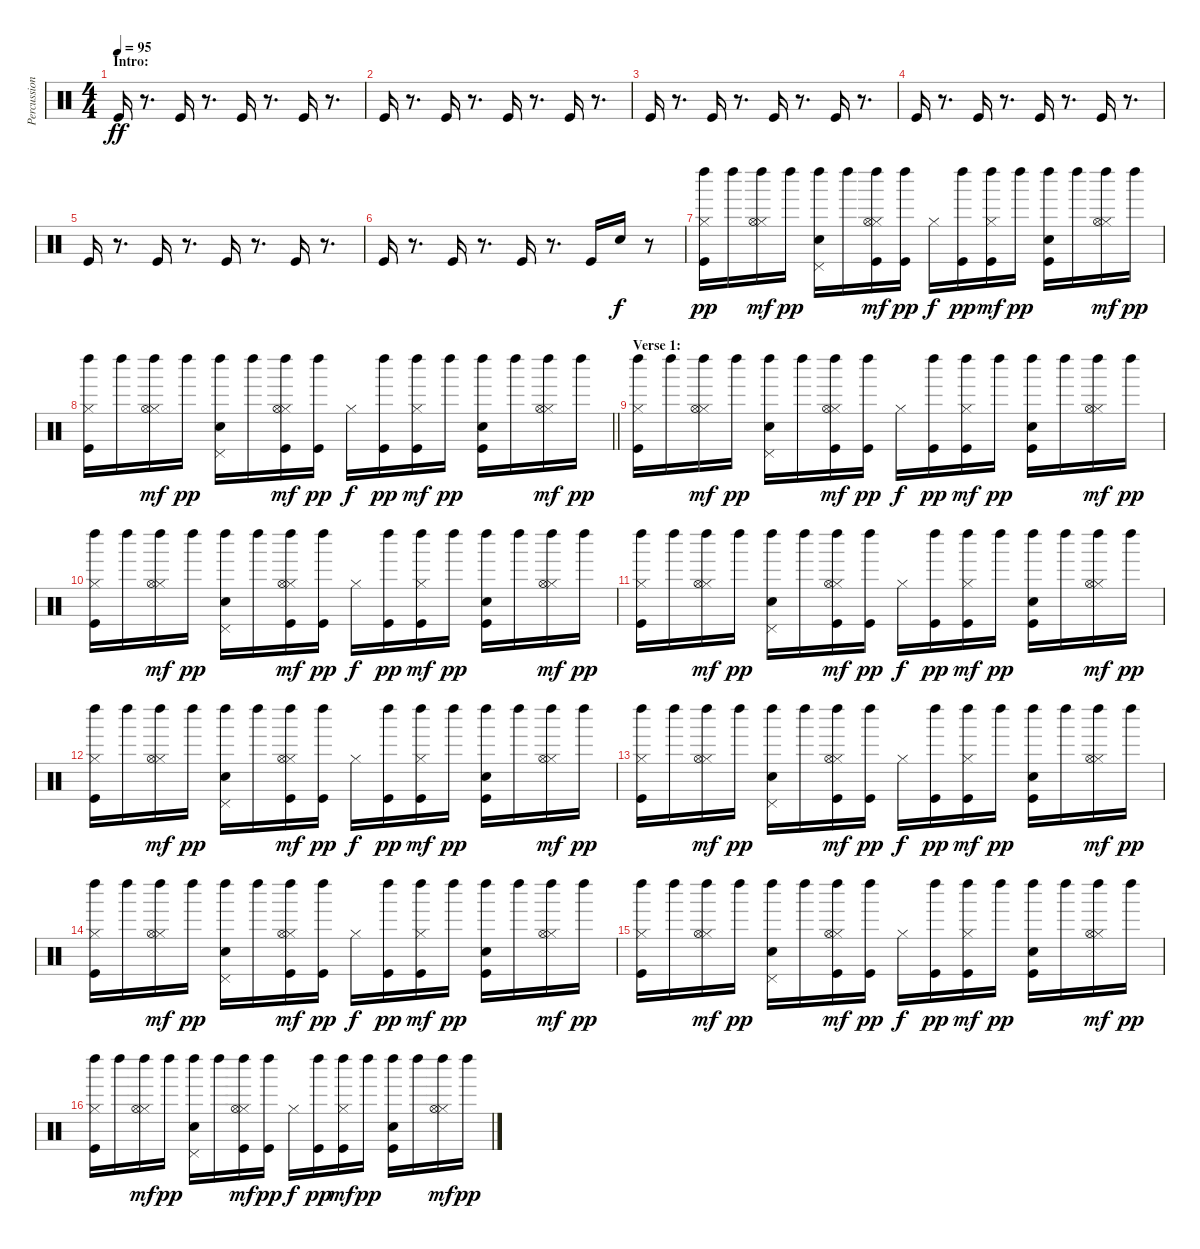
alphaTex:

\track ("Percussion" "Percussion") {instrument percussion}
\staff {score}
\articulation defaults
\ts (4 4)
\section ("" "Intro:")
\tempo 95
\clef neutral
\ks c "Kick (hit)".16{dy ff}
r.8{d} "Kick (hit)".16 r.8{d} "Kick (hit)".16 r.8{d} "Kick (hit)".16 r.8{d} |
"Kick (hit)".16 r.8{d} "Kick (hit)".16 r.8{d} "Kick (hit)".16 r.8{d} "Kick (hit)".16 r.8{d} |
"Kick (hit)".16 r.8{d} "Kick (hit)".16 r.8{d} "Kick (hit)".16 r.8{d} "Kick (hit)".16 r.8{d} |
"Kick (hit)".16 r.8{d} "Kick (hit)".16 r.8{d} "Kick (hit)".16 r.8{d} "Kick (hit)".16 r.8{d} |
"Kick (hit)".16 r.8{d} "Kick (hit)".16 r.8{d} "Kick (hit)".16 r.8{d} "Kick (hit)".16 r.8{d} |
"Kick (hit)".16 r.8{d} "Kick (hit)".16 r.8{d} "Kick (hit)".16 r.8{d} "Kick (hit)".16 "Snare (hit) 2".16{dy f} r.8 |
("Kick (hit)" "Hi-Hat (closed)" "Left Maraca (hit)").16{dy pp} "Left Maraca (hit)".16 ("Hi-Hat (closed)" "Hi-Hat (open)" "Left Maraca (hit)").16{dy mf} "Left Maraca (hit)".16{dy pp} ("Snare (hit) 2" "Pedal Hi-Hat (hit)" "Left Maraca (hit)").16 "Left Maraca (hit)".16 ("Kick (hit)" "Hi-Hat (closed)" "Hi-Hat (open)" "Left Maraca (hit)").16{dy mf} ("Left Maraca (hit)" "Kick (hit)").16{dy pp} "Hi-Hat (closed)".16{dy f} ("Left Maraca (hit)" "Kick (hit)").16{dy pp} ("Hi-Hat (closed)" "Kick (hit)" "Left Maraca (hit)").16{dy mf} "Left Maraca (hit)".16{dy pp} ("Snare (hit) 2" "Kick (hit)" "Left Maraca (hit)").16 "Left Maraca (hit)".16 ("Hi-Hat (closed)" "Hi-Hat (open)" "Left Maraca (hit)").16{dy mf} "Left Maraca (hit)".16{dy pp} |
\barLineRight lightlight
("Kick (hit)" "Hi-Hat (closed)" "Left Maraca (hit)").16 "Left Maraca (hit)".16 ("Hi-Hat (closed)" "Hi-Hat (open)" "Left Maraca (hit)").16{dy mf} "Left Maraca (hit)".16{dy pp} ("Snare (hit) 2" "Pedal Hi-Hat (hit)" "Left Maraca (hit)").16 "Left Maraca (hit)".16 ("Kick (hit)" "Hi-Hat (closed)" "Hi-Hat (open)" "Left Maraca (hit)").16{dy mf} ("Left Maraca (hit)" "Kick (hit)").16{dy pp} "Hi-Hat (closed)".16{dy f} ("Left Maraca (hit)" "Kick (hit)").16{dy pp} ("Hi-Hat (closed)" "Kick (hit)" "Left Maraca (hit)").16{dy mf} "Left Maraca (hit)".16{dy pp} ("Snare (hit) 2" "Kick (hit)" "Left Maraca (hit)").16 "Left Maraca (hit)".16 ("Hi-Hat (closed)" "Hi-Hat (open)" "Left Maraca (hit)").16{dy mf} "Left Maraca (hit)".16{dy pp} |
\section ("" "Verse 1:")
("Kick (hit)" "Hi-Hat (closed)" "Left Maraca (hit)").16 "Left Maraca (hit)".16 ("Hi-Hat (closed)" "Hi-Hat (open)" "Left Maraca (hit)").16{dy mf} "Left Maraca (hit)".16{dy pp} ("Snare (hit) 2" "Pedal Hi-Hat (hit)" "Left Maraca (hit)").16 "Left Maraca (hit)".16 ("Kick (hit)" "Hi-Hat (closed)" "Hi-Hat (open)" "Left Maraca (hit)").16{dy mf} ("Left Maraca (hit)" "Kick (hit)").16{dy pp} "Hi-Hat (closed)".16{dy f} ("Left Maraca (hit)" "Kick (hit)").16{dy pp} ("Hi-Hat (closed)" "Kick (hit)" "Left Maraca (hit)").16{dy mf} "Left Maraca (hit)".16{dy pp} ("Snare (hit) 2" "Kick (hit)" "Left Maraca (hit)").16 "Left Maraca (hit)".16 ("Hi-Hat (closed)" "Hi-Hat (open)" "Left Maraca (hit)").16{dy mf} "Left Maraca (hit)".16{dy pp} |
("Kick (hit)" "Hi-Hat (closed)" "Left Maraca (hit)").16 "Left Maraca (hit)".16 ("Hi-Hat (closed)" "Hi-Hat (open)" "Left Maraca (hit)").16{dy mf} "Left Maraca (hit)".16{dy pp} ("Snare (hit) 2" "Pedal Hi-Hat (hit)" "Left Maraca (hit)").16 "Left Maraca (hit)".16 ("Kick (hit)" "Hi-Hat (closed)" "Hi-Hat (open)" "Left Maraca (hit)").16{dy mf} ("Left Maraca (hit)" "Kick (hit)").16{dy pp} "Hi-Hat (closed)".16{dy f} ("Left Maraca (hit)" "Kick (hit)").16{dy pp} ("Hi-Hat (closed)" "Kick (hit)" "Left Maraca (hit)").16{dy mf} "Left Maraca (hit)".16{dy pp} ("Snare (hit) 2" "Kick (hit)" "Left Maraca (hit)").16 "Left Maraca (hit)".16 ("Hi-Hat (closed)" "Hi-Hat (open)" "Left Maraca (hit)").16{dy mf} "Left Maraca (hit)".16{dy pp} |
("Kick (hit)" "Hi-Hat (closed)" "Left Maraca (hit)").16 "Left Maraca (hit)".16 ("Hi-Hat (closed)" "Hi-Hat (open)" "Left Maraca (hit)").16{dy mf} "Left Maraca (hit)".16{dy pp} ("Snare (hit) 2" "Pedal Hi-Hat (hit)" "Left Maraca (hit)").16 "Left Maraca (hit)".16 ("Kick (hit)" "Hi-Hat (closed)" "Hi-Hat (open)" "Left Maraca (hit)").16{dy mf} ("Left Maraca (hit)" "Kick (hit)").16{dy pp} "Hi-Hat (closed)".16{dy f} ("Left Maraca (hit)" "Kick (hit)").16{dy pp} ("Hi-Hat (closed)" "Kick (hit)" "Left Maraca (hit)").16{dy mf} "Left Maraca (hit)".16{dy pp} ("Snare (hit) 2" "Kick (hit)" "Left Maraca (hit)").16 "Left Maraca (hit)".16 ("Hi-Hat (closed)" "Hi-Hat (open)" "Left Maraca (hit)").16{dy mf} "Left Maraca (hit)".16{dy pp} |
("Kick (hit)" "Hi-Hat (closed)" "Left Maraca (hit)").16 "Left Maraca (hit)".16 ("Hi-Hat (closed)" "Hi-Hat (open)" "Left Maraca (hit)").16{dy mf} "Left Maraca (hit)".16{dy pp} ("Snare (hit) 2" "Pedal Hi-Hat (hit)" "Left Maraca (hit)").16 "Left Maraca (hit)".16 ("Kick (hit)" "Hi-Hat (closed)" "Hi-Hat (open)" "Left Maraca (hit)").16{dy mf} ("Left Maraca (hit)" "Kick (hit)").16{dy pp} "Hi-Hat (closed)".16{dy f} ("Left Maraca (hit)" "Kick (hit)").16{dy pp} ("Hi-Hat (closed)" "Kick (hit)" "Left Maraca (hit)").16{dy mf} "Left Maraca (hit)".16{dy pp} ("Snare (hit) 2" "Kick (hit)" "Left Maraca (hit)").16 "Left Maraca (hit)".16 ("Hi-Hat (closed)" "Hi-Hat (open)" "Left Maraca (hit)").16{dy mf} "Left Maraca (hit)".16{dy pp} |
("Kick (hit)" "Hi-Hat (closed)" "Left Maraca (hit)").16 "Left Maraca (hit)".16 ("Hi-Hat (closed)" "Hi-Hat (open)" "Left Maraca (hit)").16{dy mf} "Left Maraca (hit)".16{dy pp} ("Snare (hit) 2" "Pedal Hi-Hat (hit)" "Left Maraca (hit)").16 "Left Maraca (hit)".16 ("Kick (hit)" "Hi-Hat (closed)" "Hi-Hat (open)" "Left Maraca (hit)").16{dy mf} ("Left Maraca (hit)" "Kick (hit)").16{dy pp} "Hi-Hat (closed)".16{dy f} ("Left Maraca (hit)" "Kick (hit)").16{dy pp} ("Hi-Hat (closed)" "Kick (hit)" "Left Maraca (hit)").16{dy mf} "Left Maraca (hit)".16{dy pp} ("Snare (hit) 2" "Kick (hit)" "Left Maraca (hit)").16 "Left Maraca (hit)".16 ("Hi-Hat (closed)" "Hi-Hat (open)" "Left Maraca (hit)").16{dy mf} "Left Maraca (hit)".16{dy pp} |
("Kick (hit)" "Hi-Hat (closed)" "Left Maraca (hit)").16 "Left Maraca (hit)".16 ("Hi-Hat (closed)" "Hi-Hat (open)" "Left Maraca (hit)").16{dy mf} "Left Maraca (hit)".16{dy pp} ("Snare (hit) 2" "Pedal Hi-Hat (hit)" "Left Maraca (hit)").16 "Left Maraca (hit)".16 ("Kick (hit)" "Hi-Hat (closed)" "Hi-Hat (open)" "Left Maraca (hit)").16{dy mf} ("Left Maraca (hit)" "Kick (hit)").16{dy pp} "Hi-Hat (closed)".16{dy f} ("Left Maraca (hit)" "Kick (hit)").16{dy pp} ("Hi-Hat (closed)" "Kick (hit)" "Left Maraca (hit)").16{dy mf} "Left Maraca (hit)".16{dy pp} ("Snare (hit) 2" "Kick (hit)" "Left Maraca (hit)").16 "Left Maraca (hit)".16 ("Hi-Hat (closed)" "Hi-Hat (open)" "Left Maraca (hit)").16{dy mf} "Left Maraca (hit)".16{dy pp} |
("Kick (hit)" "Hi-Hat (closed)" "Left Maraca (hit)").16 "Left Maraca (hit)".16 ("Hi-Hat (closed)" "Hi-Hat (open)" "Left Maraca (hit)").16{dy mf} "Left Maraca (hit)".16{dy pp} ("Snare (hit) 2" "Pedal Hi-Hat (hit)" "Left Maraca (hit)").16 "Left Maraca (hit)".16 ("Kick (hit)" "Hi-Hat (closed)" "Hi-Hat (open)" "Left Maraca (hit)").16{dy mf} ("Left Maraca (hit)" "Kick (hit)").16{dy pp} "Hi-Hat (closed)".16{dy f} ("Left Maraca (hit)" "Kick (hit)").16{dy pp} ("Hi-Hat (closed)" "Kick (hit)" "Left Maraca (hit)").16{dy mf} "Left Maraca (hit)".16{dy pp} ("Snare (hit) 2" "Kick (hit)" "Left Maraca (hit)").16 "Left Maraca (hit)".16 ("Hi-Hat (closed)" "Hi-Hat (open)" "Left Maraca (hit)").16{dy mf} "Left Maraca (hit)".16{dy pp} |
("Kick (hit)" "Hi-Hat (closed)" "Left Maraca (hit)").16 "Left Maraca (hit)".16 ("Hi-Hat (closed)" "Hi-Hat (open)" "Left Maraca (hit)").16{dy mf} "Left Maraca (hit)".16{dy pp} ("Snare (hit) 2" "Pedal Hi-Hat (hit)" "Left Maraca (hit)").16 "Left Maraca (hit)".16 ("Kick (hit)" "Hi-Hat (closed)" "Hi-Hat (open)" "Left Maraca (hit)").16{dy mf} ("Left Maraca (hit)" "Kick (hit)").16{dy pp} "Hi-Hat (closed)".16{dy f} ("Left Maraca (hit)" "Kick (hit)").16{dy pp} ("Hi-Hat (closed)" "Kick (hit)" "Left Maraca (hit)").16{dy mf} "Left Maraca (hit)".16{dy pp} ("Snare (hit) 2" "Kick (hit)" "Left Maraca (hit)").16 "Left Maraca (hit)".16 ("Hi-Hat (closed)" "Hi-Hat (open)" "Left Maraca (hit)").16{dy mf} "Left Maraca (hit)".16{dy pp}
